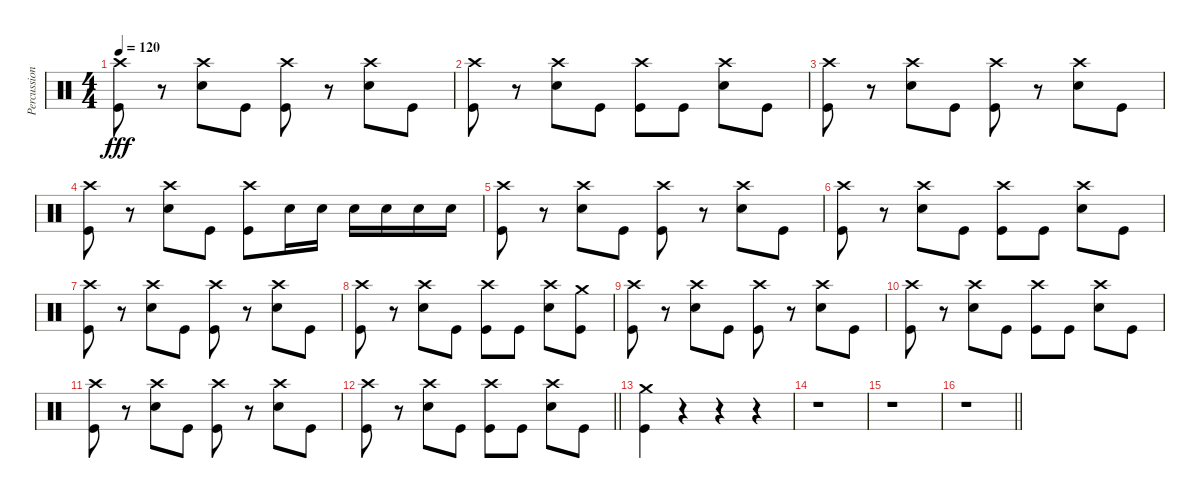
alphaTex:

\track ("Percussions" "Percussion") {instrument percussion}
\staff {score}
\articulation defaults
\ts (4 4)
\tempo 120
\clef neutral
\ks c
("Crash high (hit)" "Kick (hit)").8{dy fff} r.8 ("Crash high (hit)" "Snare (hit) 2").8 "Kick (hit)".8 ("Crash high (hit)" "Kick (hit)").8 r.8 ("Crash high (hit)" "Snare (hit) 2").8 "Kick (hit)".8 |
("Crash high (hit)" "Kick (hit)").8 r.8 ("Crash high (hit)" "Snare (hit) 2").8 "Kick (hit)".8 ("Crash high (hit)" "Kick (hit)").8 "Kick (hit)".8 ("Crash high (hit)" "Snare (hit) 2").8 "Kick (hit)".8 |
("Crash high (hit)" "Kick (hit)").8 r.8 ("Crash high (hit)" "Snare (hit) 2").8 "Kick (hit)".8 ("Crash high (hit)" "Kick (hit)").8 r.8 ("Crash high (hit)" "Snare (hit) 2").8 "Kick (hit)".8 |
("Crash high (hit)" "Kick (hit)").8 r.8 ("Crash high (hit)" "Snare (hit) 2").8 "Kick (hit)".8 ("Crash high (hit)" "Kick (hit)").8 "Snare (hit) 2".16 "Snare (hit) 2".16 "Snare (hit) 2".16 "Snare (hit) 2".16 "Snare (hit) 2".16 "Snare (hit) 2".16 |
("Crash high (hit)" "Kick (hit)").8 r.8 ("Crash high (hit)" "Snare (hit) 2").8 "Kick (hit)".8 ("Crash high (hit)" "Kick (hit)").8 r.8 ("Crash high (hit)" "Snare (hit) 2").8 "Kick (hit)".8 |
("Crash high (hit)" "Kick (hit)").8 r.8 ("Crash high (hit)" "Snare (hit) 2").8 "Kick (hit)".8 ("Crash high (hit)" "Kick (hit)").8 "Kick (hit)".8 ("Crash high (hit)" "Snare (hit) 2").8 "Kick (hit)".8 |
("Crash high (hit)" "Kick (hit)").8 r.8 ("Crash high (hit)" "Snare (hit) 2").8 "Kick (hit)".8 ("Crash high (hit)" "Kick (hit)").8 r.8 ("Crash high (hit)" "Snare (hit) 2").8 "Kick (hit)".8 |
("Crash high (hit)" "Kick (hit)").8 r.8 ("Crash high (hit)" "Snare (hit) 2").8 "Kick (hit)".8 ("Crash high (hit)" "Kick (hit)").8 "Kick (hit)".8 ("Crash high (hit)" "Snare (hit) 2").8 ("Crash medium (hit)" "Kick (hit)").8 |
("Crash high (hit)" "Kick (hit)").8 r.8 ("Crash high (hit)" "Snare (hit) 2").8 "Kick (hit)".8 ("Crash high (hit)" "Kick (hit)").8 r.8 ("Crash high (hit)" "Snare (hit) 2").8 "Kick (hit)".8 |
("Crash high (hit)" "Kick (hit)").8 r.8 ("Crash high (hit)" "Snare (hit) 2").8 "Kick (hit)".8 ("Crash high (hit)" "Kick (hit)").8 "Kick (hit)".8 ("Crash high (hit)" "Snare (hit) 2").8 "Kick (hit)".8 |
("Crash high (hit)" "Kick (hit)").8 r.8 ("Crash high (hit)" "Snare (hit) 2").8 "Kick (hit)".8 ("Crash high (hit)" "Kick (hit)").8 r.8 ("Crash high (hit)" "Snare (hit) 2").8 "Kick (hit)".8 |
\barLineRight lightlight
("Crash high (hit)" "Kick (hit)").8 r.8 ("Crash high (hit)" "Snare (hit) 2").8 "Kick (hit)".8 ("Crash high (hit)" "Kick (hit)").8 "Kick (hit)".8 ("Crash high (hit)" "Snare (hit) 2").8 "Kick (hit)".8 |
("Crash medium (hit)" "Kick (hit)").4 r.4 r.4 r.4 |
r.1 |
r.1 |
\barLineRight lightlight
r.1
